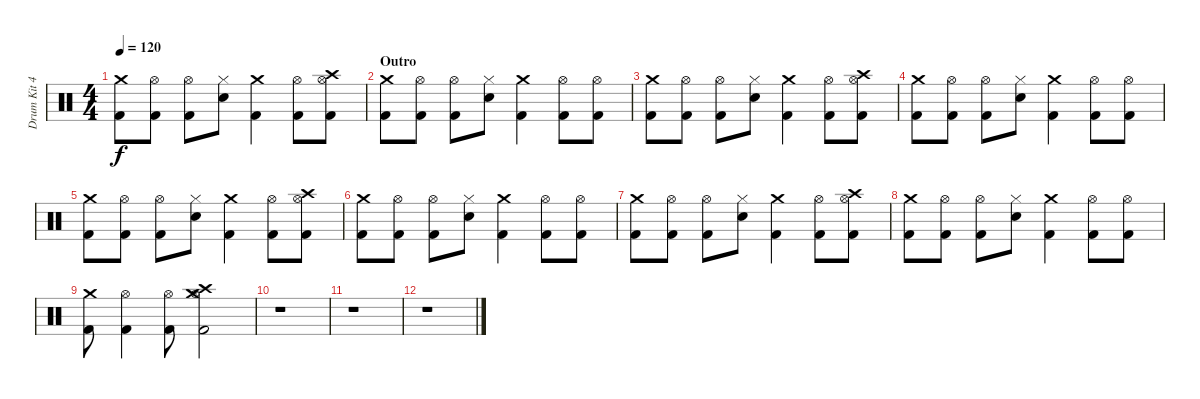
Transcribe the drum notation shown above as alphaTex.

\track ("Drum Kit 42" "Drum Kit 4") {instrument percussion}
\staff {score}
\articulation defaults
\ts (4 4)
\tempo 120
\clef neutral
\ks c
("Crash medium (hit)" "Kick (hit) 2").8{dy f} ("Hi-Hat (open)" "Kick (hit) 2").8 ("Hi-Hat (open)" "Kick (hit) 2").8 ("Hi-Hat (closed)" "Snare (hit) 2").8 ("Crash medium (hit)" "Kick (hit) 2").4 ("Hi-Hat (open)" "Kick (hit) 2").8 ("Crash high (hit)" "Hi-Hat (open)" "Kick (hit) 2").8 |
\section ("" "Outro")
("Crash medium (hit)" "Kick (hit) 2").8 ("Hi-Hat (open)" "Kick (hit) 2").8 ("Hi-Hat (open)" "Kick (hit) 2").8 ("Hi-Hat (closed)" "Snare (hit) 2").8 ("Crash medium (hit)" "Kick (hit) 2").4 ("Hi-Hat (open)" "Kick (hit) 2").8 ("Hi-Hat (open)" "Kick (hit) 2").8 |
("Crash medium (hit)" "Kick (hit) 2").8 ("Hi-Hat (open)" "Kick (hit) 2").8 ("Hi-Hat (open)" "Kick (hit) 2").8 ("Hi-Hat (closed)" "Snare (hit) 2").8 ("Crash medium (hit)" "Kick (hit) 2").4 ("Hi-Hat (open)" "Kick (hit) 2").8 ("Crash high (hit)" "Hi-Hat (open)" "Kick (hit) 2").8 |
("Crash medium (hit)" "Kick (hit) 2").8 ("Hi-Hat (open)" "Kick (hit) 2").8 ("Hi-Hat (open)" "Kick (hit) 2").8 ("Hi-Hat (closed)" "Snare (hit) 2").8 ("Crash medium (hit)" "Kick (hit) 2").4 ("Hi-Hat (open)" "Kick (hit) 2").8 ("Hi-Hat (open)" "Kick (hit) 2").8 |
("Crash medium (hit)" "Kick (hit) 2").8 ("Hi-Hat (open)" "Kick (hit) 2").8 ("Hi-Hat (open)" "Kick (hit) 2").8 ("Hi-Hat (closed)" "Snare (hit) 2").8 ("Crash medium (hit)" "Kick (hit) 2").4 ("Hi-Hat (open)" "Kick (hit) 2").8 ("Crash high (hit)" "Hi-Hat (open)" "Kick (hit) 2").8 |
("Crash medium (hit)" "Kick (hit) 2").8 ("Hi-Hat (open)" "Kick (hit) 2").8 ("Hi-Hat (open)" "Kick (hit) 2").8 ("Hi-Hat (closed)" "Snare (hit) 2").8 ("Crash medium (hit)" "Kick (hit) 2").4 ("Hi-Hat (open)" "Kick (hit) 2").8 ("Hi-Hat (open)" "Kick (hit) 2").8 |
("Crash medium (hit)" "Kick (hit) 2").8 ("Hi-Hat (open)" "Kick (hit) 2").8 ("Hi-Hat (open)" "Kick (hit) 2").8 ("Hi-Hat (closed)" "Snare (hit) 2").8 ("Crash medium (hit)" "Kick (hit) 2").4 ("Hi-Hat (open)" "Kick (hit) 2").8 ("Crash high (hit)" "Hi-Hat (open)" "Kick (hit) 2").8 |
("Crash medium (hit)" "Kick (hit) 2").8 ("Hi-Hat (open)" "Kick (hit) 2").8 ("Hi-Hat (open)" "Kick (hit) 2").8 ("Hi-Hat (closed)" "Snare (hit) 2").8 ("Crash medium (hit)" "Kick (hit) 2").4 ("Hi-Hat (open)" "Kick (hit) 2").8 ("Hi-Hat (open)" "Kick (hit) 2").8 |
("Crash medium (hit)" "Kick (hit) 2").8 ("Hi-Hat (open)" "Kick (hit) 2").4 ("Hi-Hat (open)" "Kick (hit) 2").8 ("Crash medium (hit)" "Crash high (hit)" "Hi-Hat (open)" "Kick (hit) 2").2 |
r.1 |
r.1 |
r.1
